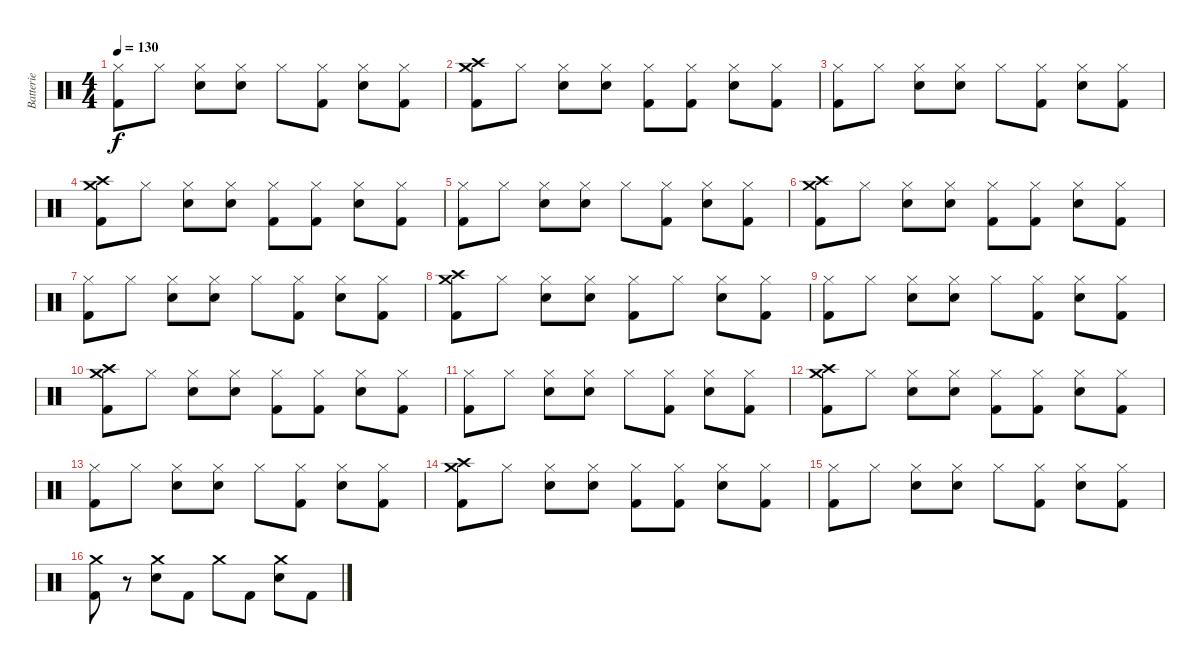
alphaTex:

\track ("Batterie" "Batterie") {instrument percussion}
\staff {score}
\articulation defaults
\ts (4 4)
\tempo 130
\clef neutral
\ks c
("Hi-Hat (closed)" "Kick (hit) 2").8{dy f} "Hi-Hat (closed)".8 ("Hi-Hat (closed)" "Snare (hit) 2").8 ("Hi-Hat (closed)" "Snare (hit) 2").8 "Hi-Hat (closed)".8 ("Hi-Hat (closed)" "Kick (hit) 2").8 ("Hi-Hat (closed)" "Snare (hit) 2").8 ("Hi-Hat (closed)" "Kick (hit) 2").8 |
("Crash high (hit)" "Crash medium (hit)" "Kick (hit) 2").8 "Hi-Hat (closed)".8 ("Hi-Hat (closed)" "Snare (hit) 2").8 ("Hi-Hat (closed)" "Snare (hit) 2").8 ("Hi-Hat (closed)" "Kick (hit) 2").8 ("Hi-Hat (closed)" "Kick (hit) 2").8 ("Hi-Hat (closed)" "Snare (hit) 2").8 ("Hi-Hat (closed)" "Kick (hit) 2").8 |
("Hi-Hat (closed)" "Kick (hit) 2").8 "Hi-Hat (closed)".8 ("Hi-Hat (closed)" "Snare (hit) 2").8 ("Hi-Hat (closed)" "Snare (hit) 2").8 "Hi-Hat (closed)".8 ("Hi-Hat (closed)" "Kick (hit) 2").8 ("Hi-Hat (closed)" "Snare (hit) 2").8 ("Hi-Hat (closed)" "Kick (hit) 2").8 |
("Crash high (hit)" "Crash medium (hit)" "Kick (hit) 2").8 "Hi-Hat (closed)".8 ("Hi-Hat (closed)" "Snare (hit) 2").8 ("Hi-Hat (closed)" "Snare (hit) 2").8 ("Hi-Hat (closed)" "Kick (hit) 2").8 ("Hi-Hat (closed)" "Kick (hit) 2").8 ("Hi-Hat (closed)" "Snare (hit) 2").8 ("Hi-Hat (closed)" "Kick (hit) 2").8 |
("Hi-Hat (closed)" "Kick (hit) 2").8 "Hi-Hat (closed)".8 ("Hi-Hat (closed)" "Snare (hit) 2").8 ("Hi-Hat (closed)" "Snare (hit) 2").8 "Hi-Hat (closed)".8 ("Hi-Hat (closed)" "Kick (hit) 2").8 ("Hi-Hat (closed)" "Snare (hit) 2").8 ("Hi-Hat (closed)" "Kick (hit) 2").8 |
("Crash high (hit)" "Crash medium (hit)" "Kick (hit) 2").8 "Hi-Hat (closed)".8 ("Hi-Hat (closed)" "Snare (hit) 2").8 ("Hi-Hat (closed)" "Snare (hit) 2").8 ("Hi-Hat (closed)" "Kick (hit) 2").8 ("Hi-Hat (closed)" "Kick (hit) 2").8 ("Hi-Hat (closed)" "Snare (hit) 2").8 ("Hi-Hat (closed)" "Kick (hit) 2").8 |
("Hi-Hat (closed)" "Kick (hit) 2").8 "Hi-Hat (closed)".8 ("Hi-Hat (closed)" "Snare (hit) 2").8 ("Hi-Hat (closed)" "Snare (hit) 2").8 "Hi-Hat (closed)".8 ("Hi-Hat (closed)" "Kick (hit) 2").8 ("Hi-Hat (closed)" "Snare (hit) 2").8 ("Hi-Hat (closed)" "Kick (hit) 2").8 |
("Crash high (hit)" "Crash medium (hit)" "Kick (hit) 2").8 "Hi-Hat (closed)".8 ("Hi-Hat (closed)" "Snare (hit) 2").8 ("Hi-Hat (closed)" "Snare (hit) 2").8 ("Hi-Hat (closed)" "Kick (hit) 2").8 "Hi-Hat (closed)".8 ("Hi-Hat (closed)" "Snare (hit) 2").8 ("Hi-Hat (closed)" "Kick (hit) 2").8 |
("Hi-Hat (closed)" "Kick (hit) 2").8 "Hi-Hat (closed)".8 ("Hi-Hat (closed)" "Snare (hit) 2").8 ("Hi-Hat (closed)" "Snare (hit) 2").8 "Hi-Hat (closed)".8 ("Hi-Hat (closed)" "Kick (hit) 2").8 ("Hi-Hat (closed)" "Snare (hit) 2").8 ("Hi-Hat (closed)" "Kick (hit) 2").8 |
("Crash high (hit)" "Crash medium (hit)" "Kick (hit) 2").8 "Hi-Hat (closed)".8 ("Hi-Hat (closed)" "Snare (hit) 2").8 ("Hi-Hat (closed)" "Snare (hit) 2").8 ("Hi-Hat (closed)" "Kick (hit) 2").8 ("Hi-Hat (closed)" "Kick (hit) 2").8 ("Hi-Hat (closed)" "Snare (hit) 2").8 ("Hi-Hat (closed)" "Kick (hit) 2").8 |
("Hi-Hat (closed)" "Kick (hit) 2").8 "Hi-Hat (closed)".8 ("Hi-Hat (closed)" "Snare (hit) 2").8 ("Hi-Hat (closed)" "Snare (hit) 2").8 "Hi-Hat (closed)".8 ("Hi-Hat (closed)" "Kick (hit) 2").8 ("Hi-Hat (closed)" "Snare (hit) 2").8 ("Hi-Hat (closed)" "Kick (hit) 2").8 |
("Crash high (hit)" "Crash medium (hit)" "Kick (hit) 2").8 "Hi-Hat (closed)".8 ("Hi-Hat (closed)" "Snare (hit) 2").8 ("Hi-Hat (closed)" "Snare (hit) 2").8 ("Hi-Hat (closed)" "Kick (hit) 2").8 ("Hi-Hat (closed)" "Kick (hit) 2").8 ("Hi-Hat (closed)" "Snare (hit) 2").8 ("Hi-Hat (closed)" "Kick (hit) 2").8 |
("Hi-Hat (closed)" "Kick (hit) 2").8 "Hi-Hat (closed)".8 ("Hi-Hat (closed)" "Snare (hit) 2").8 ("Hi-Hat (closed)" "Snare (hit) 2").8 "Hi-Hat (closed)".8 ("Hi-Hat (closed)" "Kick (hit) 2").8 ("Hi-Hat (closed)" "Snare (hit) 2").8 ("Hi-Hat (closed)" "Kick (hit) 2").8 |
("Crash high (hit)" "Crash medium (hit)" "Kick (hit) 2").8 "Hi-Hat (closed)".8 ("Hi-Hat (closed)" "Snare (hit) 2").8 ("Hi-Hat (closed)" "Snare (hit) 2").8 ("Hi-Hat (closed)" "Kick (hit) 2").8 ("Hi-Hat (closed)" "Kick (hit) 2").8 ("Hi-Hat (closed)" "Snare (hit) 2").8 ("Hi-Hat (closed)" "Kick (hit) 2").8 |
("Hi-Hat (closed)" "Kick (hit) 2").8 "Hi-Hat (closed)".8 ("Hi-Hat (closed)" "Snare (hit) 2").8 ("Hi-Hat (closed)" "Snare (hit) 2").8 "Hi-Hat (closed)".8 ("Hi-Hat (closed)" "Kick (hit) 2").8 ("Hi-Hat (closed)" "Snare (hit) 2").8 ("Hi-Hat (closed)" "Kick (hit) 2").8 |
("Crash medium (hit)" "Kick (hit) 2").8 r.8 ("Crash medium (hit)" "Snare (hit) 2").8 "Kick (hit) 2".8 "Crash medium (hit)".8 "Kick (hit) 2".8 ("Crash medium (hit)" "Snare (hit) 2").8 "Kick (hit) 2".8
